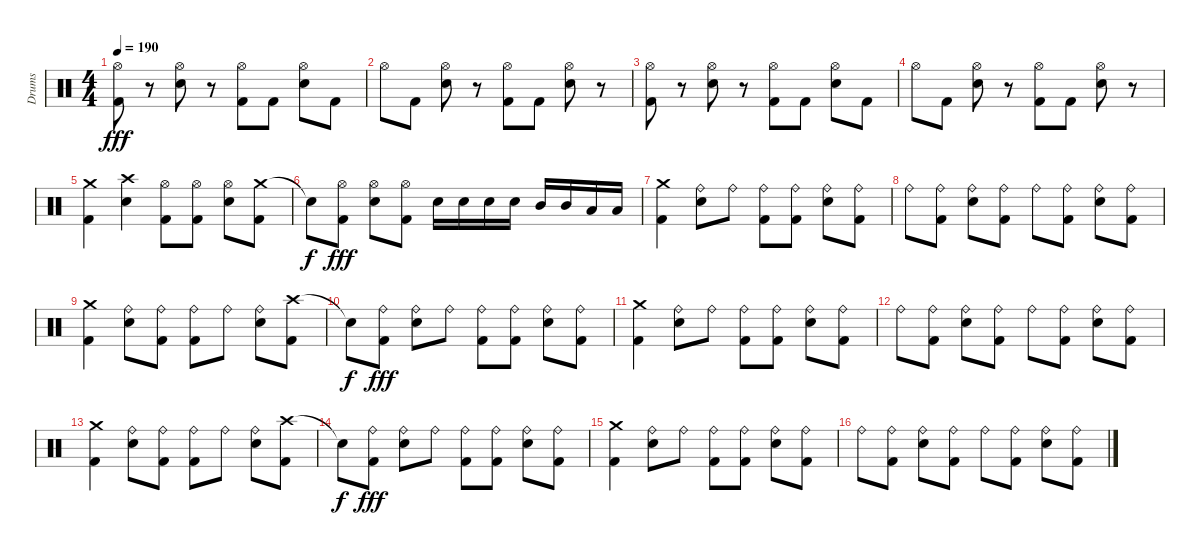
\track ("Drums" "Drums") {instrument percussion}
\staff {score}
\articulation defaults
\ts (4 4)
\tempo 190
\clef neutral
\ks c
("Kick (hit) 2" "Hi-Hat (open)").8{dy fff} r.8 ("Electric Snare (hit)" "Hi-Hat (open)").8 r.8 ("Kick (hit) 2" "Hi-Hat (open)").8 "Kick (hit) 2".8 ("Electric Snare (hit)" "Hi-Hat (open)").8 "Kick (hit) 2".8 |
"Hi-Hat (open)".8 "Kick (hit) 2".8 ("Electric Snare (hit)" "Hi-Hat (open)").8 r.8 ("Kick (hit) 2" "Hi-Hat (open)").8 "Kick (hit) 2".8 ("Electric Snare (hit)" "Hi-Hat (open)").8 r.8 |
("Kick (hit) 2" "Hi-Hat (open)").8 r.8 ("Electric Snare (hit)" "Hi-Hat (open)").8 r.8 ("Kick (hit) 2" "Hi-Hat (open)").8 "Kick (hit) 2".8 ("Electric Snare (hit)" "Hi-Hat (open)").8 "Kick (hit) 2".8 |
"Hi-Hat (open)".8 "Kick (hit) 2".8 ("Electric Snare (hit)" "Hi-Hat (open)").8 r.8 ("Kick (hit) 2" "Hi-Hat (open)").8 "Kick (hit) 2".8 ("Electric Snare (hit)" "Hi-Hat (open)").8 r.8 |
("Crash medium (hit)" "Kick (hit) 2").4 ("Electric Snare (hit)" "Crash high (hit)").4 ("Hi-Hat (open)" "Kick (hit) 2").8 ("Kick (hit) 2" "Hi-Hat (open)").8 ("Electric Snare (hit)" "Hi-Hat (open)").8 ("Crash medium (hit)" "Kick (hit) 2").8 |
"Snare (hit)"{t}.8{dy f} ("Hi-Hat (open)" "Kick (hit) 2").8{dy fff} ("Hi-Hat (open)" "Electric Snare (hit)").8 ("Kick (hit) 2" "Hi-Hat (open)").8 "Electric Snare (hit)".16 "Electric Snare (hit)".16 "Electric Snare (hit)".16 "Electric Snare (hit)".16 "Mid Tom (hit)".16 "Mid Tom (hit)".16 "Low Tom (hit)".16 "Low Tom (hit)".16 |
("Crash medium (hit)" "Kick (hit) 2").4 ("Ride (bell)" "Electric Snare (hit)").8 "Ride (bell)".8 ("Kick (hit) 2" "Ride (bell)").8 ("Ride (bell)" "Kick (hit) 2").8 ("Electric Snare (hit)" "Ride (bell)").8 ("Ride (bell)" "Kick (hit) 2").8 |
"Ride (bell)".8 ("Kick (hit) 2" "Ride (bell)").8 ("Ride (bell)" "Electric Snare (hit)").8 ("Ride (bell)" "Kick (hit) 2").8 "Ride (bell)".8 ("Ride (bell)" "Kick (hit) 2").8 ("Ride (bell)" "Electric Snare (hit)").8 ("Ride (bell)" "Kick (hit) 2").8 |
("Kick (hit) 2" "Crash medium (hit)").4 ("Ride (bell)" "Electric Snare (hit)").8 ("Kick (hit) 2" "Ride (bell)").8 ("Kick (hit) 2" "Ride (bell)").8 "Ride (bell)".8 ("Electric Snare (hit)" "Ride (bell)").8 ("Crash high (hit)" "Kick (hit) 2").8 |
"Snare (hit)"{t}.8{dy f} ("Kick (hit) 2" "Ride (bell)").8{dy fff} ("Ride (bell)" "Electric Snare (hit)").8 "Ride (bell)".8 ("Kick (hit) 2" "Ride (bell)").8 ("Ride (bell)" "Kick (hit) 2").8 ("Ride (bell)" "Electric Snare (hit)").8 ("Kick (hit) 2" "Ride (bell)").8 |
("Crash medium (hit)" "Kick (hit) 2").4 ("Electric Snare (hit)" "Ride (bell)").8 "Ride (bell)".8 ("Kick (hit) 2" "Ride (bell)").8 ("Kick (hit) 2" "Ride (bell)").8 ("Ride (bell)" "Electric Snare (hit)").8 ("Ride (bell)" "Kick (hit) 2").8 |
"Ride (bell)".8 ("Ride (bell)" "Kick (hit) 2").8 ("Ride (bell)" "Electric Snare (hit)").8 ("Kick (hit) 2" "Ride (bell)").8 "Ride (bell)".8 ("Ride (bell)" "Kick (hit) 2").8 ("Electric Snare (hit)" "Ride (bell)").8 ("Ride (bell)" "Kick (hit) 2").8 |
("Crash medium (hit)" "Kick (hit) 2").4 ("Ride (bell)" "Electric Snare (hit)").8 ("Ride (bell)" "Kick (hit) 2").8 ("Kick (hit) 2" "Ride (bell)").8 "Ride (bell)".8 ("Ride (bell)" "Electric Snare (hit)").8 ("Crash high (hit)" "Kick (hit) 2").8 |
"Snare (hit)"{t}.8{dy f} ("Ride (bell)" "Kick (hit) 2").8{dy fff} ("Electric Snare (hit)" "Ride (bell)").8 "Ride (bell)".8 ("Ride (bell)" "Kick (hit) 2").8 ("Kick (hit) 2" "Ride (bell)").8 ("Ride (bell)" "Electric Snare (hit)").8 ("Ride (bell)" "Kick (hit) 2").8 |
("Kick (hit) 2" "Crash medium (hit)").4 ("Ride (bell)" "Electric Snare (hit)").8 "Ride (bell)".8 ("Kick (hit) 2" "Ride (bell)").8 ("Ride (bell)" "Kick (hit) 2").8 ("Ride (bell)" "Electric Snare (hit)").8 ("Kick (hit) 2" "Ride (bell)").8 |
"Ride (bell)".8 ("Ride (bell)" "Kick (hit) 2").8 ("Electric Snare (hit)" "Ride (bell)").8 ("Kick (hit) 2" "Ride (bell)").8 "Ride (bell)".8 ("Kick (hit) 2" "Ride (bell)").8 ("Electric Snare (hit)" "Ride (bell)").8 ("Kick (hit) 2" "Ride (bell)").8
